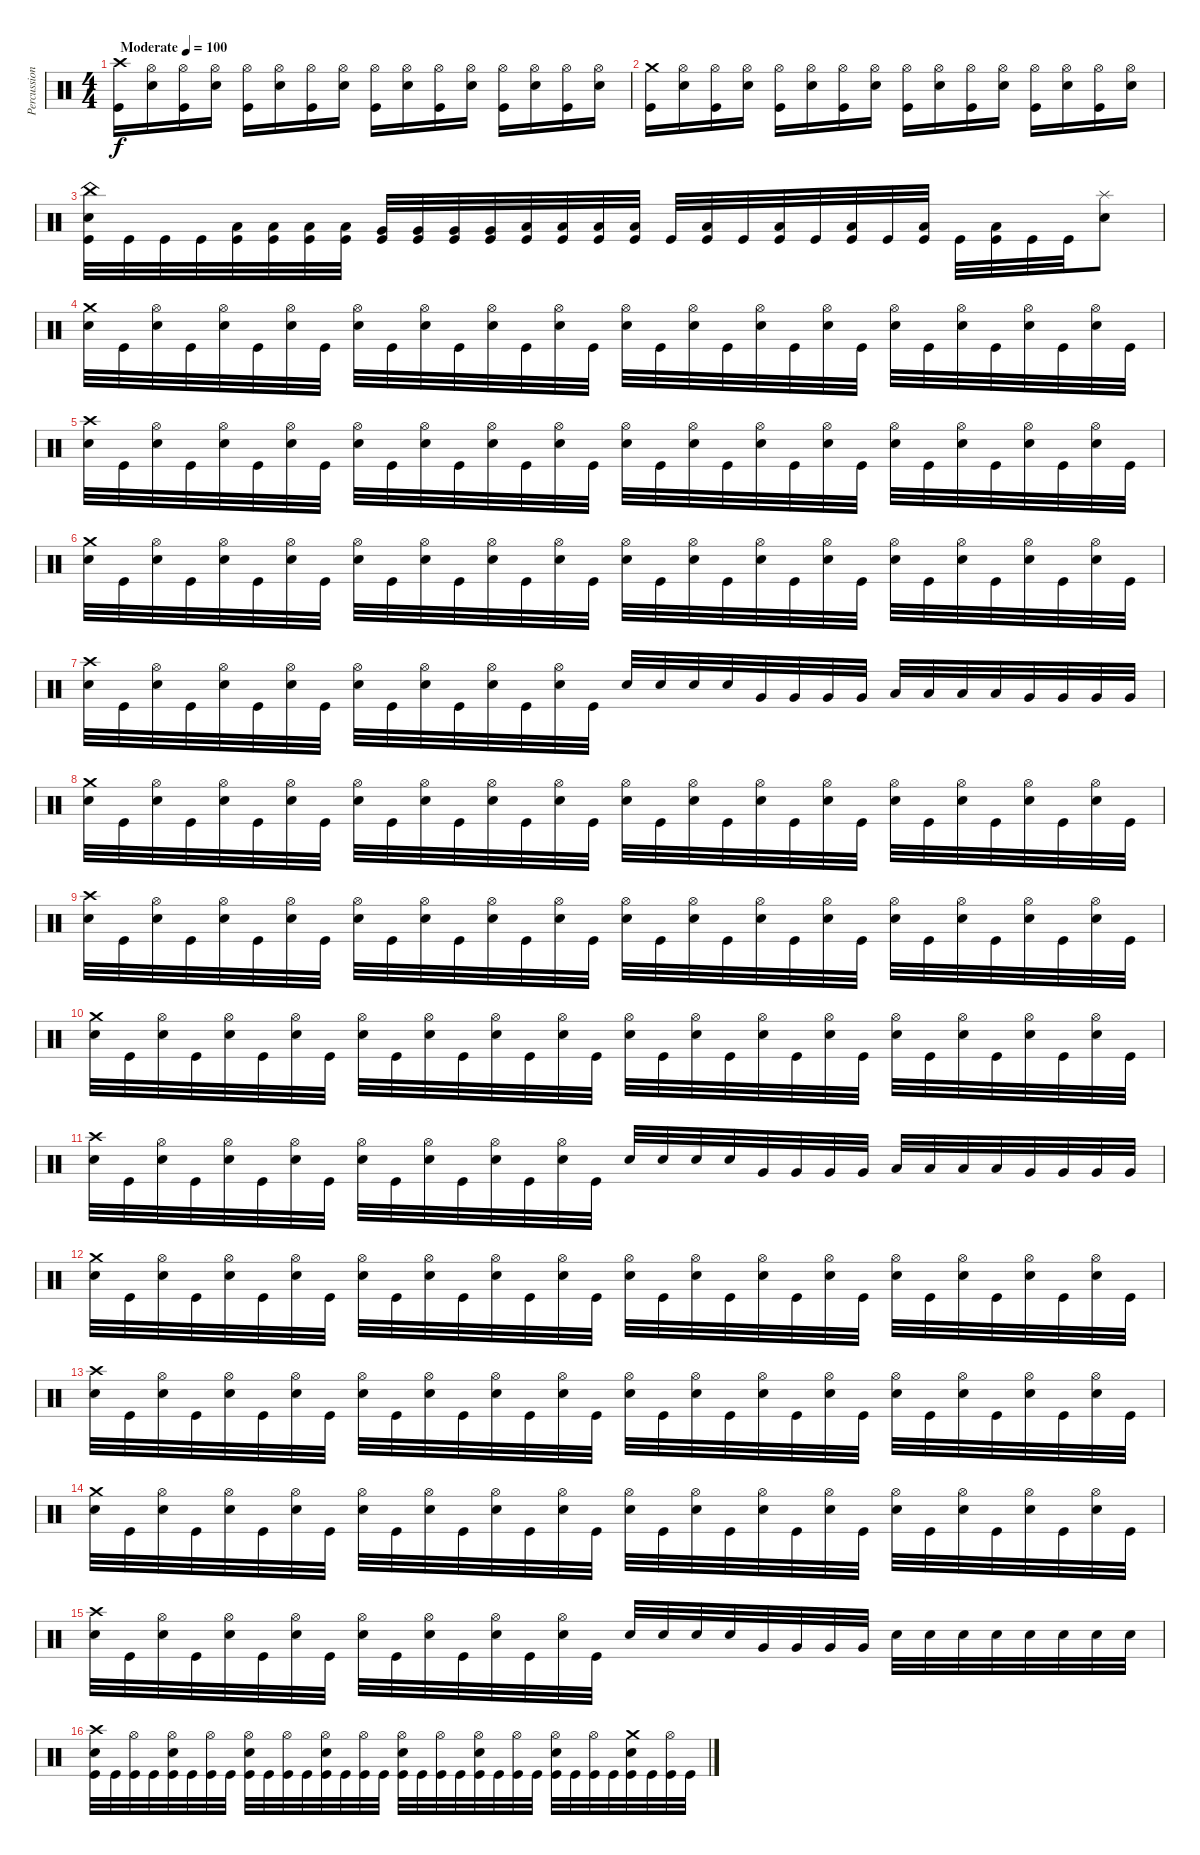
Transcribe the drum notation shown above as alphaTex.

\track ("Percussion" "Percussion") {instrument percussion}
\staff {score}
\articulation defaults
\ts (4 4)
\tempo (100 "Moderate")
\clef neutral
\ks c
("Crash high (hit)" "Kick (hit)").16{dy f} ("Hi-Hat (open)" "Electric Snare (hit)").16 ("Hi-Hat (open)" "Kick (hit)").16 ("Hi-Hat (open)" "Electric Snare (hit)").16 ("Hi-Hat (open)" "Kick (hit)").16 ("Hi-Hat (open)" "Electric Snare (hit)").16 ("Hi-Hat (open)" "Kick (hit)").16 ("Hi-Hat (open)" "Electric Snare (hit)").16 ("Hi-Hat (open)" "Kick (hit)").16 ("Hi-Hat (open)" "Electric Snare (hit)").16 ("Hi-Hat (open)" "Kick (hit)").16 ("Hi-Hat (open)" "Electric Snare (hit)").16 ("Hi-Hat (open)" "Kick (hit)").16 ("Hi-Hat (open)" "Electric Snare (hit)").16 ("Hi-Hat (open)" "Kick (hit)").16 ("Hi-Hat (open)" "Electric Snare (hit)").16 |
("Crash medium (hit)" "Kick (hit)").16 ("Hi-Hat (open)" "Electric Snare (hit)").16 ("Hi-Hat (open)" "Kick (hit)").16 ("Hi-Hat (open)" "Electric Snare (hit)").16 ("Hi-Hat (open)" "Kick (hit)").16 ("Hi-Hat (open)" "Electric Snare (hit)").16 ("Hi-Hat (open)" "Kick (hit)").16 ("Hi-Hat (open)" "Electric Snare (hit)").16 ("Hi-Hat (open)" "Kick (hit)").16 ("Hi-Hat (open)" "Electric Snare (hit)").16 ("Hi-Hat (open)" "Kick (hit)").16 ("Hi-Hat (open)" "Electric Snare (hit)").16 ("Hi-Hat (open)" "Kick (hit)").16 ("Hi-Hat (open)" "Electric Snare (hit)").16 ("Hi-Hat (open)" "Kick (hit)").16 ("Hi-Hat (open)" "Electric Snare (hit)").16 |
("China (hit)" "Electric Snare (hit)" "Kick (hit)").32 "Kick (hit)".32 "Kick (hit)".32 "Kick (hit)".32 ("Low Tom (hit)" "Kick (hit)").32 ("Low Tom (hit)" "Kick (hit)").32 ("Low Tom (hit)" "Kick (hit)").32 ("Low Tom (hit)" "Kick (hit)").32 ("Very Low Tom (hit)" "Kick (hit)").32 ("Very Low Tom (hit)" "Kick (hit)").32 ("Very Low Tom (hit)" "Kick (hit)").32 ("Very Low Tom (hit)" "Kick (hit)").32 ("Low Floor Tom (hit)" "Kick (hit)").32 ("Low Floor Tom (hit)" "Kick (hit)").32 ("Low Floor Tom (hit)" "Kick (hit)").32 ("Low Floor Tom (hit)" "Kick (hit)").32 "Kick (hit)".32 ("Low Floor Tom (hit)" "Kick (hit)").32 "Kick (hit)".32 ("Low Floor Tom (hit)" "Kick (hit)").32 "Kick (hit)".32 ("Low Floor Tom (hit)" "Kick (hit)").32 "Kick (hit)".32 ("Low Floor Tom (hit)" "Kick (hit)").32 "Kick (hit)".32 ("Low Floor Tom (hit)" "Kick (hit)").32 "Kick (hit)".32 "Kick (hit)".32 ("Splash (hit)" "Electric Snare (hit)").8 |
("Crash medium (hit)" "Electric Snare (hit)").32 "Kick (hit)".32 ("Hi-Hat (open)" "Electric Snare (hit)").32 "Kick (hit)".32 ("Hi-Hat (open)" "Electric Snare (hit)").32 "Kick (hit)".32 ("Hi-Hat (open)" "Electric Snare (hit)").32 "Kick (hit)".32 ("Hi-Hat (open)" "Electric Snare (hit)").32 "Kick (hit)".32 ("Hi-Hat (open)" "Electric Snare (hit)").32 "Kick (hit)".32 ("Hi-Hat (open)" "Electric Snare (hit)").32 "Kick (hit)".32 ("Hi-Hat (open)" "Electric Snare (hit)").32 "Kick (hit)".32 ("Hi-Hat (open)" "Electric Snare (hit)").32 "Kick (hit)".32 ("Hi-Hat (open)" "Electric Snare (hit)").32 "Kick (hit)".32 ("Hi-Hat (open)" "Electric Snare (hit)").32 "Kick (hit)".32 ("Hi-Hat (open)" "Electric Snare (hit)").32 "Kick (hit)".32 ("Hi-Hat (open)" "Electric Snare (hit)").32 "Kick (hit)".32 ("Hi-Hat (open)" "Electric Snare (hit)").32 "Kick (hit)".32 ("Hi-Hat (open)" "Electric Snare (hit)").32 "Kick (hit)".32 ("Hi-Hat (open)" "Electric Snare (hit)").32 "Kick (hit)".32 |
("Crash high (hit)" "Electric Snare (hit)").32 "Kick (hit)".32 ("Hi-Hat (open)" "Electric Snare (hit)").32 "Kick (hit)".32 ("Hi-Hat (open)" "Electric Snare (hit)").32 "Kick (hit)".32 ("Hi-Hat (open)" "Electric Snare (hit)").32 "Kick (hit)".32 ("Hi-Hat (open)" "Electric Snare (hit)").32 "Kick (hit)".32 ("Hi-Hat (open)" "Electric Snare (hit)").32 "Kick (hit)".32 ("Hi-Hat (open)" "Electric Snare (hit)").32 "Kick (hit)".32 ("Hi-Hat (open)" "Electric Snare (hit)").32 "Kick (hit)".32 ("Hi-Hat (open)" "Electric Snare (hit)").32 "Kick (hit)".32 ("Hi-Hat (open)" "Electric Snare (hit)").32 "Kick (hit)".32 ("Hi-Hat (open)" "Electric Snare (hit)").32 "Kick (hit)".32 ("Hi-Hat (open)" "Electric Snare (hit)").32 "Kick (hit)".32 ("Hi-Hat (open)" "Electric Snare (hit)").32 "Kick (hit)".32 ("Hi-Hat (open)" "Electric Snare (hit)").32 "Kick (hit)".32 ("Hi-Hat (open)" "Electric Snare (hit)").32 "Kick (hit)".32 ("Hi-Hat (open)" "Electric Snare (hit)").32 "Kick (hit)".32 |
("Crash medium (hit)" "Electric Snare (hit)").32 "Kick (hit)".32 ("Hi-Hat (open)" "Electric Snare (hit)").32 "Kick (hit)".32 ("Hi-Hat (open)" "Electric Snare (hit)").32 "Kick (hit)".32 ("Hi-Hat (open)" "Electric Snare (hit)").32 "Kick (hit)".32 ("Hi-Hat (open)" "Electric Snare (hit)").32 "Kick (hit)".32 ("Hi-Hat (open)" "Electric Snare (hit)").32 "Kick (hit)".32 ("Hi-Hat (open)" "Electric Snare (hit)").32 "Kick (hit)".32 ("Hi-Hat (open)" "Electric Snare (hit)").32 "Kick (hit)".32 ("Hi-Hat (open)" "Electric Snare (hit)").32 "Kick (hit)".32 ("Hi-Hat (open)" "Electric Snare (hit)").32 "Kick (hit)".32 ("Hi-Hat (open)" "Electric Snare (hit)").32 "Kick (hit)".32 ("Hi-Hat (open)" "Electric Snare (hit)").32 "Kick (hit)".32 ("Hi-Hat (open)" "Electric Snare (hit)").32 "Kick (hit)".32 ("Hi-Hat (open)" "Electric Snare (hit)").32 "Kick (hit)".32 ("Hi-Hat (open)" "Electric Snare (hit)").32 "Kick (hit)".32 ("Hi-Hat (open)" "Electric Snare (hit)").32 "Kick (hit)".32 |
("Crash high (hit)" "Electric Snare (hit)").32 "Kick (hit)".32 ("Hi-Hat (open)" "Electric Snare (hit)").32 "Kick (hit)".32 ("Hi-Hat (open)" "Electric Snare (hit)").32 "Kick (hit)".32 ("Hi-Hat (open)" "Electric Snare (hit)").32 "Kick (hit)".32 ("Hi-Hat (open)" "Electric Snare (hit)").32 "Kick (hit)".32 ("Hi-Hat (open)" "Electric Snare (hit)").32 "Kick (hit)".32 ("Hi-Hat (open)" "Electric Snare (hit)").32 "Kick (hit)".32 ("Hi-Hat (open)" "Electric Snare (hit)").32 "Kick (hit)".32 "Electric Snare (hit)".32 "Electric Snare (hit)".32 "Electric Snare (hit)".32 "Electric Snare (hit)".32 "Very Low Tom (hit)".32 "Very Low Tom (hit)".32 "Very Low Tom (hit)".32 "Very Low Tom (hit)".32 "Low Tom (hit)".32 "Low Tom (hit)".32 "Low Tom (hit)".32 "Low Tom (hit)".32 "Very Low Tom (hit)".32 "Very Low Tom (hit)".32 "Very Low Tom (hit)".32 "Very Low Tom (hit)".32 |
("Crash medium (hit)" "Electric Snare (hit)").32 "Kick (hit)".32 ("Hi-Hat (open)" "Electric Snare (hit)").32 "Kick (hit)".32 ("Hi-Hat (open)" "Electric Snare (hit)").32 "Kick (hit)".32 ("Hi-Hat (open)" "Electric Snare (hit)").32 "Kick (hit)".32 ("Hi-Hat (open)" "Electric Snare (hit)").32 "Kick (hit)".32 ("Hi-Hat (open)" "Electric Snare (hit)").32 "Kick (hit)".32 ("Hi-Hat (open)" "Electric Snare (hit)").32 "Kick (hit)".32 ("Hi-Hat (open)" "Electric Snare (hit)").32 "Kick (hit)".32 ("Hi-Hat (open)" "Electric Snare (hit)").32 "Kick (hit)".32 ("Hi-Hat (open)" "Electric Snare (hit)").32 "Kick (hit)".32 ("Hi-Hat (open)" "Electric Snare (hit)").32 "Kick (hit)".32 ("Hi-Hat (open)" "Electric Snare (hit)").32 "Kick (hit)".32 ("Hi-Hat (open)" "Electric Snare (hit)").32 "Kick (hit)".32 ("Hi-Hat (open)" "Electric Snare (hit)").32 "Kick (hit)".32 ("Hi-Hat (open)" "Electric Snare (hit)").32 "Kick (hit)".32 ("Hi-Hat (open)" "Electric Snare (hit)").32 "Kick (hit)".32 |
("Crash high (hit)" "Electric Snare (hit)").32 "Kick (hit)".32 ("Hi-Hat (open)" "Electric Snare (hit)").32 "Kick (hit)".32 ("Hi-Hat (open)" "Electric Snare (hit)").32 "Kick (hit)".32 ("Hi-Hat (open)" "Electric Snare (hit)").32 "Kick (hit)".32 ("Hi-Hat (open)" "Electric Snare (hit)").32 "Kick (hit)".32 ("Hi-Hat (open)" "Electric Snare (hit)").32 "Kick (hit)".32 ("Hi-Hat (open)" "Electric Snare (hit)").32 "Kick (hit)".32 ("Hi-Hat (open)" "Electric Snare (hit)").32 "Kick (hit)".32 ("Hi-Hat (open)" "Electric Snare (hit)").32 "Kick (hit)".32 ("Hi-Hat (open)" "Electric Snare (hit)").32 "Kick (hit)".32 ("Hi-Hat (open)" "Electric Snare (hit)").32 "Kick (hit)".32 ("Hi-Hat (open)" "Electric Snare (hit)").32 "Kick (hit)".32 ("Hi-Hat (open)" "Electric Snare (hit)").32 "Kick (hit)".32 ("Hi-Hat (open)" "Electric Snare (hit)").32 "Kick (hit)".32 ("Hi-Hat (open)" "Electric Snare (hit)").32 "Kick (hit)".32 ("Hi-Hat (open)" "Electric Snare (hit)").32 "Kick (hit)".32 |
("Crash medium (hit)" "Electric Snare (hit)").32 "Kick (hit)".32 ("Hi-Hat (open)" "Electric Snare (hit)").32 "Kick (hit)".32 ("Hi-Hat (open)" "Electric Snare (hit)").32 "Kick (hit)".32 ("Hi-Hat (open)" "Electric Snare (hit)").32 "Kick (hit)".32 ("Hi-Hat (open)" "Electric Snare (hit)").32 "Kick (hit)".32 ("Hi-Hat (open)" "Electric Snare (hit)").32 "Kick (hit)".32 ("Hi-Hat (open)" "Electric Snare (hit)").32 "Kick (hit)".32 ("Hi-Hat (open)" "Electric Snare (hit)").32 "Kick (hit)".32 ("Hi-Hat (open)" "Electric Snare (hit)").32 "Kick (hit)".32 ("Hi-Hat (open)" "Electric Snare (hit)").32 "Kick (hit)".32 ("Hi-Hat (open)" "Electric Snare (hit)").32 "Kick (hit)".32 ("Hi-Hat (open)" "Electric Snare (hit)").32 "Kick (hit)".32 ("Hi-Hat (open)" "Electric Snare (hit)").32 "Kick (hit)".32 ("Hi-Hat (open)" "Electric Snare (hit)").32 "Kick (hit)".32 ("Hi-Hat (open)" "Electric Snare (hit)").32 "Kick (hit)".32 ("Hi-Hat (open)" "Electric Snare (hit)").32 "Kick (hit)".32 |
("Crash high (hit)" "Electric Snare (hit)").32 "Kick (hit)".32 ("Hi-Hat (open)" "Electric Snare (hit)").32 "Kick (hit)".32 ("Hi-Hat (open)" "Electric Snare (hit)").32 "Kick (hit)".32 ("Hi-Hat (open)" "Electric Snare (hit)").32 "Kick (hit)".32 ("Hi-Hat (open)" "Electric Snare (hit)").32 "Kick (hit)".32 ("Hi-Hat (open)" "Electric Snare (hit)").32 "Kick (hit)".32 ("Hi-Hat (open)" "Electric Snare (hit)").32 "Kick (hit)".32 ("Hi-Hat (open)" "Electric Snare (hit)").32 "Kick (hit)".32 "Electric Snare (hit)".32 "Electric Snare (hit)".32 "Electric Snare (hit)".32 "Electric Snare (hit)".32 "Very Low Tom (hit)".32 "Very Low Tom (hit)".32 "Very Low Tom (hit)".32 "Very Low Tom (hit)".32 "Low Tom (hit)".32 "Low Tom (hit)".32 "Low Tom (hit)".32 "Low Tom (hit)".32 "Very Low Tom (hit)".32 "Very Low Tom (hit)".32 "Very Low Tom (hit)".32 "Very Low Tom (hit)".32 |
("Crash medium (hit)" "Electric Snare (hit)").32 "Kick (hit)".32 ("Hi-Hat (open)" "Electric Snare (hit)").32 "Kick (hit)".32 ("Hi-Hat (open)" "Electric Snare (hit)").32 "Kick (hit)".32 ("Hi-Hat (open)" "Electric Snare (hit)").32 "Kick (hit)".32 ("Hi-Hat (open)" "Electric Snare (hit)").32 "Kick (hit)".32 ("Hi-Hat (open)" "Electric Snare (hit)").32 "Kick (hit)".32 ("Hi-Hat (open)" "Electric Snare (hit)").32 "Kick (hit)".32 ("Hi-Hat (open)" "Electric Snare (hit)").32 "Kick (hit)".32 ("Hi-Hat (open)" "Electric Snare (hit)").32 "Kick (hit)".32 ("Hi-Hat (open)" "Electric Snare (hit)").32 "Kick (hit)".32 ("Hi-Hat (open)" "Electric Snare (hit)").32 "Kick (hit)".32 ("Hi-Hat (open)" "Electric Snare (hit)").32 "Kick (hit)".32 ("Hi-Hat (open)" "Electric Snare (hit)").32 "Kick (hit)".32 ("Hi-Hat (open)" "Electric Snare (hit)").32 "Kick (hit)".32 ("Hi-Hat (open)" "Electric Snare (hit)").32 "Kick (hit)".32 ("Hi-Hat (open)" "Electric Snare (hit)").32 "Kick (hit)".32 |
("Crash high (hit)" "Electric Snare (hit)").32 "Kick (hit)".32 ("Hi-Hat (open)" "Electric Snare (hit)").32 "Kick (hit)".32 ("Hi-Hat (open)" "Electric Snare (hit)").32 "Kick (hit)".32 ("Hi-Hat (open)" "Electric Snare (hit)").32 "Kick (hit)".32 ("Hi-Hat (open)" "Electric Snare (hit)").32 "Kick (hit)".32 ("Hi-Hat (open)" "Electric Snare (hit)").32 "Kick (hit)".32 ("Hi-Hat (open)" "Electric Snare (hit)").32 "Kick (hit)".32 ("Hi-Hat (open)" "Electric Snare (hit)").32 "Kick (hit)".32 ("Hi-Hat (open)" "Electric Snare (hit)").32 "Kick (hit)".32 ("Hi-Hat (open)" "Electric Snare (hit)").32 "Kick (hit)".32 ("Hi-Hat (open)" "Electric Snare (hit)").32 "Kick (hit)".32 ("Hi-Hat (open)" "Electric Snare (hit)").32 "Kick (hit)".32 ("Hi-Hat (open)" "Electric Snare (hit)").32 "Kick (hit)".32 ("Hi-Hat (open)" "Electric Snare (hit)").32 "Kick (hit)".32 ("Hi-Hat (open)" "Electric Snare (hit)").32 "Kick (hit)".32 ("Hi-Hat (open)" "Electric Snare (hit)").32 "Kick (hit)".32 |
("Crash medium (hit)" "Electric Snare (hit)").32 "Kick (hit)".32 ("Hi-Hat (open)" "Electric Snare (hit)").32 "Kick (hit)".32 ("Hi-Hat (open)" "Electric Snare (hit)").32 "Kick (hit)".32 ("Hi-Hat (open)" "Electric Snare (hit)").32 "Kick (hit)".32 ("Hi-Hat (open)" "Electric Snare (hit)").32 "Kick (hit)".32 ("Hi-Hat (open)" "Electric Snare (hit)").32 "Kick (hit)".32 ("Hi-Hat (open)" "Electric Snare (hit)").32 "Kick (hit)".32 ("Hi-Hat (open)" "Electric Snare (hit)").32 "Kick (hit)".32 ("Hi-Hat (open)" "Electric Snare (hit)").32 "Kick (hit)".32 ("Hi-Hat (open)" "Electric Snare (hit)").32 "Kick (hit)".32 ("Hi-Hat (open)" "Electric Snare (hit)").32 "Kick (hit)".32 ("Hi-Hat (open)" "Electric Snare (hit)").32 "Kick (hit)".32 ("Hi-Hat (open)" "Electric Snare (hit)").32 "Kick (hit)".32 ("Hi-Hat (open)" "Electric Snare (hit)").32 "Kick (hit)".32 ("Hi-Hat (open)" "Electric Snare (hit)").32 "Kick (hit)".32 ("Hi-Hat (open)" "Electric Snare (hit)").32 "Kick (hit)".32 |
("Crash high (hit)" "Electric Snare (hit)").32 "Kick (hit)".32 ("Hi-Hat (open)" "Electric Snare (hit)").32 "Kick (hit)".32 ("Hi-Hat (open)" "Electric Snare (hit)").32 "Kick (hit)".32 ("Hi-Hat (open)" "Electric Snare (hit)").32 "Kick (hit)".32 ("Hi-Hat (open)" "Electric Snare (hit)").32 "Kick (hit)".32 ("Hi-Hat (open)" "Electric Snare (hit)").32 "Kick (hit)".32 ("Hi-Hat (open)" "Electric Snare (hit)").32 "Kick (hit)".32 ("Hi-Hat (open)" "Electric Snare (hit)").32 "Kick (hit)".32 "Electric Snare (hit)".32 "Electric Snare (hit)".32 "Electric Snare (hit)".32 "Electric Snare (hit)".32 "Very Low Tom (hit)".32 "Very Low Tom (hit)".32 "Very Low Tom (hit)".32 "Very Low Tom (hit)".32 "Electric Snare (hit)".32 "Electric Snare (hit)".32 "Electric Snare (hit)".32 "Electric Snare (hit)".32 "Electric Snare (hit)".32 "Electric Snare (hit)".32 "Electric Snare (hit)".32 "Electric Snare (hit)".32 |
("Crash high (hit)" "Electric Snare (hit)" "Kick (hit)").32 "Kick (hit)".32 ("Hi-Hat (open)" "Kick (hit)").32 "Kick (hit)".32 ("Hi-Hat (open)" "Electric Snare (hit)" "Kick (hit)").32 "Kick (hit)".32 ("Hi-Hat (open)" "Kick (hit)").32 "Kick (hit)".32 ("Hi-Hat (open)" "Electric Snare (hit)" "Kick (hit)").32 "Kick (hit)".32 ("Hi-Hat (open)" "Kick (hit)").32 "Kick (hit)".32 ("Hi-Hat (open)" "Electric Snare (hit)" "Kick (hit)").32 "Kick (hit)".32 ("Hi-Hat (open)" "Kick (hit)").32 "Kick (hit)".32 ("Hi-Hat (open)" "Electric Snare (hit)" "Kick (hit)").32 "Kick (hit)".32 ("Hi-Hat (open)" "Kick (hit)").32 "Kick (hit)".32 ("Hi-Hat (open)" "Electric Snare (hit)" "Kick (hit)").32 "Kick (hit)".32 ("Hi-Hat (open)" "Kick (hit)").32 "Kick (hit)".32 ("Hi-Hat (open)" "Electric Snare (hit)" "Kick (hit)").32 "Kick (hit)".32 ("Hi-Hat (open)" "Kick (hit)").32 "Kick (hit)".32 ("Crash medium (hit)" "Electric Snare (hit)" "Kick (hit)").32 "Kick (hit)".32 ("Hi-Hat (open)" "Kick (hit)").32 "Kick (hit)".32
